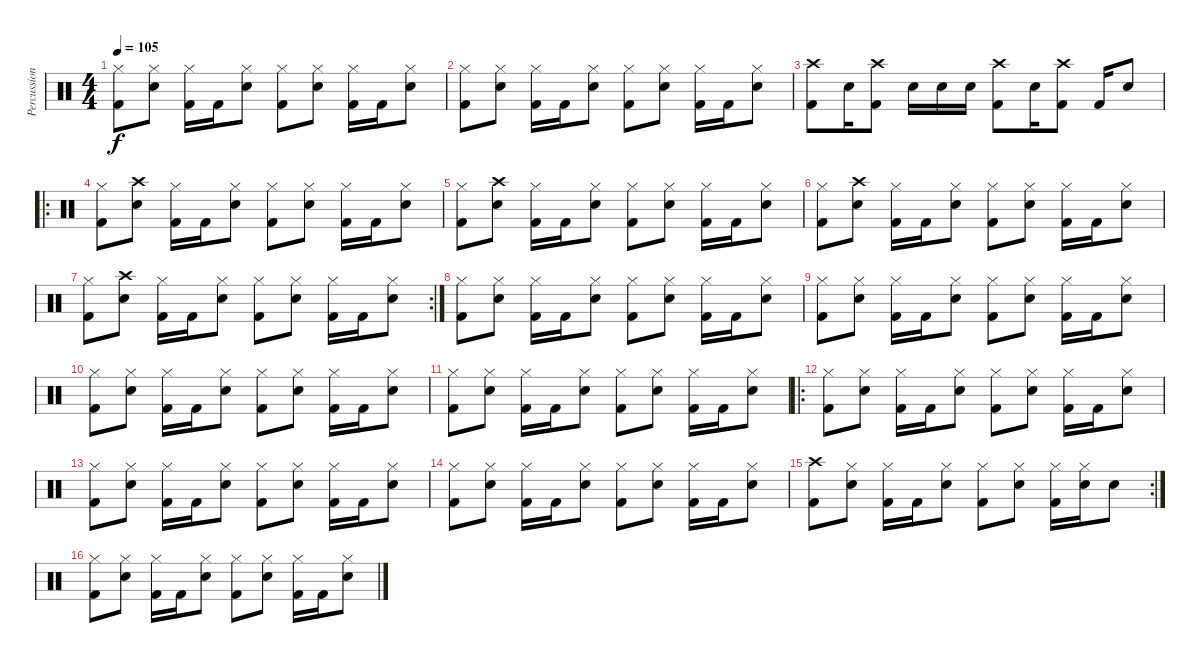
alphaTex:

\track ("Percussion" "Percussion") {instrument percussion}
\staff {score}
\articulation defaults
\ts (4 4)
\tempo 105
\clef neutral
\ks c
("Hi-Hat (closed)" "Kick (hit) 2").8{dy f} ("Hi-Hat (closed)" "Snare (hit) 2").8 ("Hi-Hat (closed)" "Kick (hit) 2").16 "Kick (hit) 2".16 ("Hi-Hat (closed)" "Snare (hit) 2").8 ("Hi-Hat (closed)" "Kick (hit) 2").8 ("Hi-Hat (closed)" "Snare (hit) 2").8 ("Hi-Hat (closed)" "Kick (hit) 2").16 "Kick (hit) 2".16 ("Hi-Hat (closed)" "Snare (hit) 2").8 |
("Hi-Hat (closed)" "Kick (hit) 2").8 ("Hi-Hat (closed)" "Snare (hit) 2").8 ("Hi-Hat (closed)" "Kick (hit) 2").16 "Kick (hit) 2".16 ("Hi-Hat (closed)" "Snare (hit) 2").8 ("Hi-Hat (closed)" "Kick (hit) 2").8 ("Hi-Hat (closed)" "Snare (hit) 2").8 ("Hi-Hat (closed)" "Kick (hit) 2").16 "Kick (hit) 2".16 ("Hi-Hat (closed)" "Snare (hit) 2").8 |
("Crash high (hit)" "Kick (hit) 2").8 "Snare (hit) 2".16 ("Crash high (hit)" "Kick (hit) 2").8 "Snare (hit) 2".16 "Snare (hit) 2".16 "Snare (hit) 2".16 ("Crash high (hit)" "Kick (hit) 2").8 "Snare (hit) 2".16 ("Crash high (hit)" "Kick (hit) 2").8 "Kick (hit) 2".16 "Snare (hit) 2".8 |
\ro
("Hi-Hat (closed)" "Kick (hit) 2").8 ("Crash high (hit)" "Snare (hit) 2").8 ("Hi-Hat (closed)" "Kick (hit) 2").16 "Kick (hit) 2".16 ("Hi-Hat (closed)" "Snare (hit) 2").8 ("Hi-Hat (closed)" "Kick (hit) 2").8 ("Hi-Hat (closed)" "Snare (hit) 2").8 ("Hi-Hat (closed)" "Kick (hit) 2").16 "Kick (hit) 2".16 ("Hi-Hat (closed)" "Snare (hit) 2").8 |
("Hi-Hat (closed)" "Kick (hit) 2").8 ("Crash high (hit)" "Snare (hit) 2").8 ("Hi-Hat (closed)" "Kick (hit) 2").16 "Kick (hit) 2".16 ("Hi-Hat (closed)" "Snare (hit) 2").8 ("Hi-Hat (closed)" "Kick (hit) 2").8 ("Hi-Hat (closed)" "Snare (hit) 2").8 ("Hi-Hat (closed)" "Kick (hit) 2").16 "Kick (hit) 2".16 ("Hi-Hat (closed)" "Snare (hit) 2").8 |
("Hi-Hat (closed)" "Kick (hit) 2").8 ("Crash high (hit)" "Snare (hit) 2").8 ("Hi-Hat (closed)" "Kick (hit) 2").16 "Kick (hit) 2".16 ("Hi-Hat (closed)" "Snare (hit) 2").8 ("Hi-Hat (closed)" "Kick (hit) 2").8 ("Hi-Hat (closed)" "Snare (hit) 2").8 ("Hi-Hat (closed)" "Kick (hit) 2").16 "Kick (hit) 2".16 ("Hi-Hat (closed)" "Snare (hit) 2").8 |
\rc 2
("Hi-Hat (closed)" "Kick (hit) 2").8 ("Crash high (hit)" "Snare (hit) 2").8 ("Hi-Hat (closed)" "Kick (hit) 2").16 "Kick (hit) 2".16 ("Hi-Hat (closed)" "Snare (hit) 2").8 ("Hi-Hat (closed)" "Kick (hit) 2").8 ("Hi-Hat (closed)" "Snare (hit) 2").8 ("Hi-Hat (closed)" "Kick (hit) 2").16 "Kick (hit) 2".16 ("Hi-Hat (closed)" "Snare (hit) 2").8 |
("Hi-Hat (closed)" "Kick (hit) 2").8 ("Hi-Hat (closed)" "Snare (hit) 2").8 ("Hi-Hat (closed)" "Kick (hit) 2").16 "Kick (hit) 2".16 ("Hi-Hat (closed)" "Snare (hit) 2").8 ("Hi-Hat (closed)" "Kick (hit) 2").8 ("Hi-Hat (closed)" "Snare (hit) 2").8 ("Hi-Hat (closed)" "Kick (hit) 2").16 "Kick (hit) 2".16 ("Hi-Hat (closed)" "Snare (hit) 2").8 |
("Hi-Hat (closed)" "Kick (hit) 2").8 ("Hi-Hat (closed)" "Snare (hit) 2").8 ("Hi-Hat (closed)" "Kick (hit) 2").16 "Kick (hit) 2".16 ("Hi-Hat (closed)" "Snare (hit) 2").8 ("Hi-Hat (closed)" "Kick (hit) 2").8 ("Hi-Hat (closed)" "Snare (hit) 2").8 ("Hi-Hat (closed)" "Kick (hit) 2").16 "Kick (hit) 2".16 ("Hi-Hat (closed)" "Snare (hit) 2").8 |
("Hi-Hat (closed)" "Kick (hit) 2").8 ("Hi-Hat (closed)" "Snare (hit) 2").8 ("Hi-Hat (closed)" "Kick (hit) 2").16 "Kick (hit) 2".16 ("Hi-Hat (closed)" "Snare (hit) 2").8 ("Hi-Hat (closed)" "Kick (hit) 2").8 ("Hi-Hat (closed)" "Snare (hit) 2").8 ("Hi-Hat (closed)" "Kick (hit) 2").16 "Kick (hit) 2".16 ("Hi-Hat (closed)" "Snare (hit) 2").8 |
("Hi-Hat (closed)" "Kick (hit) 2").8 ("Hi-Hat (closed)" "Snare (hit) 2").8 ("Hi-Hat (closed)" "Kick (hit) 2").16 "Kick (hit) 2".16 ("Hi-Hat (closed)" "Snare (hit) 2").8 ("Hi-Hat (closed)" "Kick (hit) 2").8 ("Hi-Hat (closed)" "Snare (hit) 2").8 ("Hi-Hat (closed)" "Kick (hit) 2").16 "Kick (hit) 2".16 ("Hi-Hat (closed)" "Snare (hit) 2").8 |
\ro
("Hi-Hat (closed)" "Kick (hit) 2").8 ("Hi-Hat (closed)" "Snare (hit) 2").8 ("Hi-Hat (closed)" "Kick (hit) 2").16 "Kick (hit) 2".16 ("Hi-Hat (closed)" "Snare (hit) 2").8 ("Hi-Hat (closed)" "Kick (hit) 2").8 ("Hi-Hat (closed)" "Snare (hit) 2").8 ("Hi-Hat (closed)" "Kick (hit) 2").16 "Kick (hit) 2".16 ("Hi-Hat (closed)" "Snare (hit) 2").8 |
("Hi-Hat (closed)" "Kick (hit) 2").8 ("Hi-Hat (closed)" "Snare (hit) 2").8 ("Hi-Hat (closed)" "Kick (hit) 2").16 "Kick (hit) 2".16 ("Hi-Hat (closed)" "Snare (hit) 2").8 ("Hi-Hat (closed)" "Kick (hit) 2").8 ("Hi-Hat (closed)" "Snare (hit) 2").8 ("Hi-Hat (closed)" "Kick (hit) 2").16 "Kick (hit) 2".16 ("Hi-Hat (closed)" "Snare (hit) 2").8 |
("Hi-Hat (closed)" "Kick (hit) 2").8 ("Hi-Hat (closed)" "Snare (hit) 2").8 ("Hi-Hat (closed)" "Kick (hit) 2").16 "Kick (hit) 2".16 ("Hi-Hat (closed)" "Snare (hit) 2").8 ("Hi-Hat (closed)" "Kick (hit) 2").8 ("Hi-Hat (closed)" "Snare (hit) 2").8 ("Hi-Hat (closed)" "Kick (hit) 2").16 "Kick (hit) 2".16 ("Hi-Hat (closed)" "Snare (hit) 2").8 |
\rc 2
("Crash high (hit)" "Kick (hit) 2").8 ("Hi-Hat (closed)" "Snare (hit) 2").8 ("Hi-Hat (closed)" "Kick (hit) 2").16 "Kick (hit) 2".16 ("Hi-Hat (closed)" "Snare (hit) 2").8 ("Hi-Hat (closed)" "Kick (hit) 2").8 ("Hi-Hat (closed)" "Snare (hit) 2").8 ("Hi-Hat (closed)" "Kick (hit) 2").16 ("Hi-Hat (closed)" "Snare (hit) 2").16 "Snare (hit) 2".8 |
("Hi-Hat (closed)" "Kick (hit) 2").8 ("Hi-Hat (closed)" "Snare (hit) 2").8 ("Hi-Hat (closed)" "Kick (hit) 2").16 "Kick (hit) 2".16 ("Hi-Hat (closed)" "Snare (hit) 2").8 ("Hi-Hat (closed)" "Kick (hit) 2").8 ("Hi-Hat (closed)" "Snare (hit) 2").8 ("Hi-Hat (closed)" "Kick (hit) 2").16 "Kick (hit) 2".16 ("Hi-Hat (closed)" "Snare (hit) 2").8
